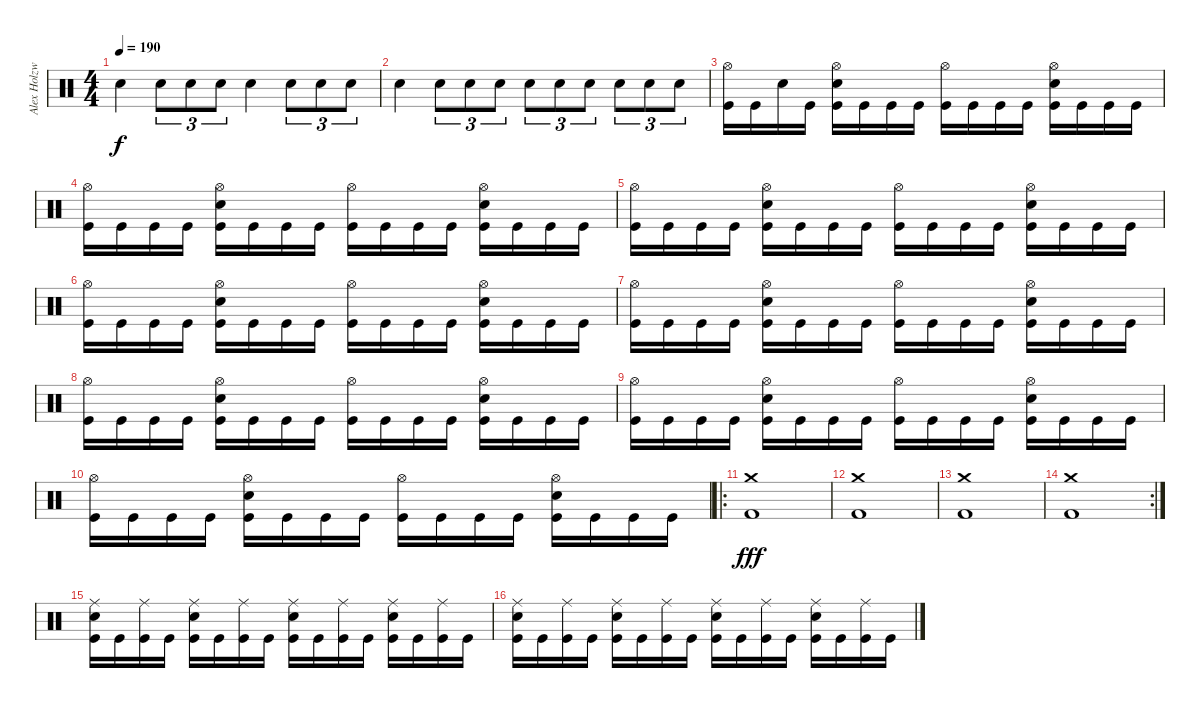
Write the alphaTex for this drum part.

\track ("Alex Holzwarth" "Alex Holzw") {instrument percussion}
\staff {score}
\articulation defaults
\ts (4 4)
\tempo 190
\clef neutral
\ks c "Electric Snare (hit)".4{dy f} "Electric Snare (hit)".8{tu (3 2)} "Electric Snare (hit)".8{tu (3 2)} "Electric Snare (hit)".8{tu (3 2)} "Electric Snare (hit)".4 "Electric Snare (hit)".8{tu (3 2)} "Electric Snare (hit)".8{tu (3 2)} "Electric Snare (hit)".8{tu (3 2)}
|
"Electric Snare (hit)".4 "Electric Snare (hit)".8{tu (3 2)} "Electric Snare (hit)".8{tu (3 2)} "Electric Snare (hit)".8{tu (3 2)} "Electric Snare (hit)".8{tu (3 2)} "Electric Snare (hit)".8{tu (3 2)} "Electric Snare (hit)".8{tu (3 2)} "Electric Snare (hit)".8{tu (3 2)} "Electric Snare (hit)".8{tu (3 2)} "Electric Snare (hit)".8{tu (3 2)} |
("Kick (hit)" "Hi-Hat (open)").16 "Kick (hit)".16 "Snare (hit)".16 "Kick (hit)".16 ("Kick (hit)" "Electric Snare (hit)" "Hi-Hat (open)").16 "Kick (hit)".16 "Kick (hit)".16 "Kick (hit)".16 ("Kick (hit)" "Hi-Hat (open)").16 "Kick (hit)".16 "Kick (hit)".16 "Kick (hit)".16 ("Kick (hit)" "Electric Snare (hit)" "Hi-Hat (open)").16 "Kick (hit)".16 "Kick (hit)".16 "Kick (hit)".16 |
("Kick (hit)" "Hi-Hat (open)").16 "Kick (hit)".16 "Kick (hit)".16 "Kick (hit)".16 ("Kick (hit)" "Electric Snare (hit)" "Hi-Hat (open)").16 "Kick (hit)".16 "Kick (hit)".16 "Kick (hit)".16 ("Kick (hit)" "Hi-Hat (open)").16 "Kick (hit)".16 "Kick (hit)".16 "Kick (hit)".16 ("Kick (hit)" "Electric Snare (hit)" "Hi-Hat (open)").16 "Kick (hit)".16 "Kick (hit)".16 "Kick (hit)".16 |
("Kick (hit)" "Hi-Hat (open)").16 "Kick (hit)".16 "Kick (hit)".16 "Kick (hit)".16 ("Kick (hit)" "Electric Snare (hit)" "Hi-Hat (open)").16 "Kick (hit)".16 "Kick (hit)".16 "Kick (hit)".16 ("Kick (hit)" "Hi-Hat (open)").16 "Kick (hit)".16 "Kick (hit)".16 "Kick (hit)".16 ("Kick (hit)" "Electric Snare (hit)" "Hi-Hat (open)").16 "Kick (hit)".16 "Kick (hit)".16 "Kick (hit)".16 |
("Kick (hit)" "Hi-Hat (open)").16 "Kick (hit)".16 "Kick (hit)".16 "Kick (hit)".16 ("Kick (hit)" "Electric Snare (hit)" "Hi-Hat (open)").16 "Kick (hit)".16 "Kick (hit)".16 "Kick (hit)".16 ("Kick (hit)" "Hi-Hat (open)").16 "Kick (hit)".16 "Kick (hit)".16 "Kick (hit)".16 ("Kick (hit)" "Electric Snare (hit)" "Hi-Hat (open)").16 "Kick (hit)".16 "Kick (hit)".16 "Kick (hit)".16 |
("Kick (hit)" "Hi-Hat (open)").16 "Kick (hit)".16 "Kick (hit)".16 "Kick (hit)".16 ("Kick (hit)" "Electric Snare (hit)" "Hi-Hat (open)").16 "Kick (hit)".16 "Kick (hit)".16 "Kick (hit)".16 ("Kick (hit)" "Hi-Hat (open)").16 "Kick (hit)".16 "Kick (hit)".16 "Kick (hit)".16 ("Kick (hit)" "Electric Snare (hit)" "Hi-Hat (open)").16 "Kick (hit)".16 "Kick (hit)".16 "Kick (hit)".16 |
("Kick (hit)" "Hi-Hat (open)").16 "Kick (hit)".16 "Kick (hit)".16 "Kick (hit)".16 ("Kick (hit)" "Electric Snare (hit)" "Hi-Hat (open)").16 "Kick (hit)".16 "Kick (hit)".16 "Kick (hit)".16 ("Kick (hit)" "Hi-Hat (open)").16 "Kick (hit)".16 "Kick (hit)".16 "Kick (hit)".16 ("Kick (hit)" "Electric Snare (hit)" "Hi-Hat (open)").16 "Kick (hit)".16 "Kick (hit)".16 "Kick (hit)".16 |
("Kick (hit)" "Hi-Hat (open)").16 "Kick (hit)".16 "Kick (hit)".16 "Kick (hit)".16 ("Kick (hit)" "Electric Snare (hit)" "Hi-Hat (open)").16 "Kick (hit)".16 "Kick (hit)".16 "Kick (hit)".16 ("Kick (hit)" "Hi-Hat (open)").16 "Kick (hit)".16 "Kick (hit)".16 "Kick (hit)".16 ("Kick (hit)" "Electric Snare (hit)" "Hi-Hat (open)").16 "Kick (hit)".16 "Kick (hit)".16 "Kick (hit)".16 |
("Kick (hit)" "Hi-Hat (open)").16 "Kick (hit)".16 "Kick (hit)".16 "Kick (hit)".16 ("Kick (hit)" "Electric Snare (hit)" "Hi-Hat (open)").16 "Kick (hit)".16 "Kick (hit)".16 "Kick (hit)".16 ("Kick (hit)" "Hi-Hat (open)").16 "Kick (hit)".16 "Kick (hit)".16 "Kick (hit)".16 ("Kick (hit)" "Electric Snare (hit)" "Hi-Hat (open)").16 "Kick (hit)".16 "Kick (hit)".16 "Kick (hit)".16 |
\ro
("Kick (hit) 2" "Crash medium (hit)").1{dy fff} |
("Kick (hit) 2" "Crash medium (hit)").1 |
("Kick (hit) 2" "Crash medium (hit)").1 |
\rc 2
("Kick (hit) 2" "Crash medium (hit)").1 |
("Kick (hit)" "Electric Snare (hit)" "Ride (middle)").16 "Kick (hit)".16 ("Kick (hit)" "Ride (middle)").16 "Kick (hit)".16 ("Kick (hit)" "Electric Snare (hit)" "Ride (middle)").16 "Kick (hit)".16 ("Kick (hit)" "Ride (middle)").16 "Kick (hit)".16 ("Kick (hit)" "Electric Snare (hit)" "Ride (middle)").16 "Kick (hit)".16 ("Kick (hit)" "Ride (middle)").16 "Kick (hit)".16 ("Kick (hit)" "Electric Snare (hit)" "Ride (middle)").16 "Kick (hit)".16 ("Kick (hit)" "Ride (middle)").16 "Kick (hit)".16 |
("Kick (hit)" "Electric Snare (hit)" "Ride (middle)").16 "Kick (hit)".16 ("Kick (hit)" "Ride (middle)").16 "Kick (hit)".16 ("Kick (hit)" "Electric Snare (hit)" "Ride (middle)").16 "Kick (hit)".16 ("Kick (hit)" "Ride (middle)").16 "Kick (hit)".16 ("Kick (hit)" "Electric Snare (hit)" "Ride (middle)").16 "Kick (hit)".16 ("Kick (hit)" "Ride (middle)").16 "Kick (hit)".16 ("Kick (hit)" "Electric Snare (hit)" "Ride (middle)").16 "Kick (hit)".16 ("Kick (hit)" "Ride (middle)").16 "Kick (hit)".16
